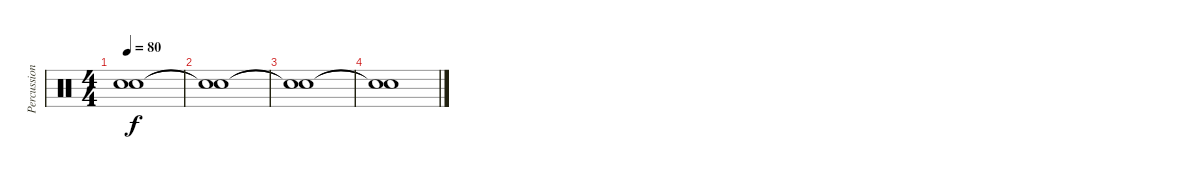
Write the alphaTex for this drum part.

\track ("Percussion (Phillips)" "Percussion") {instrument percussion}
\staff {score}
\articulation defaults
\ts (4 4)
\tempo 80
\clef neutral
\ks c
("Snare (hit)"{t} "Snare (hit)"{t}).1{dy f} |
("Snare (hit)"{t} "Snare (hit)"{t}).1 |
("Snare (hit)"{t} "Snare (hit)"{t}).1 |
("Snare (hit)"{t} "Snare (hit)"{t}).1
